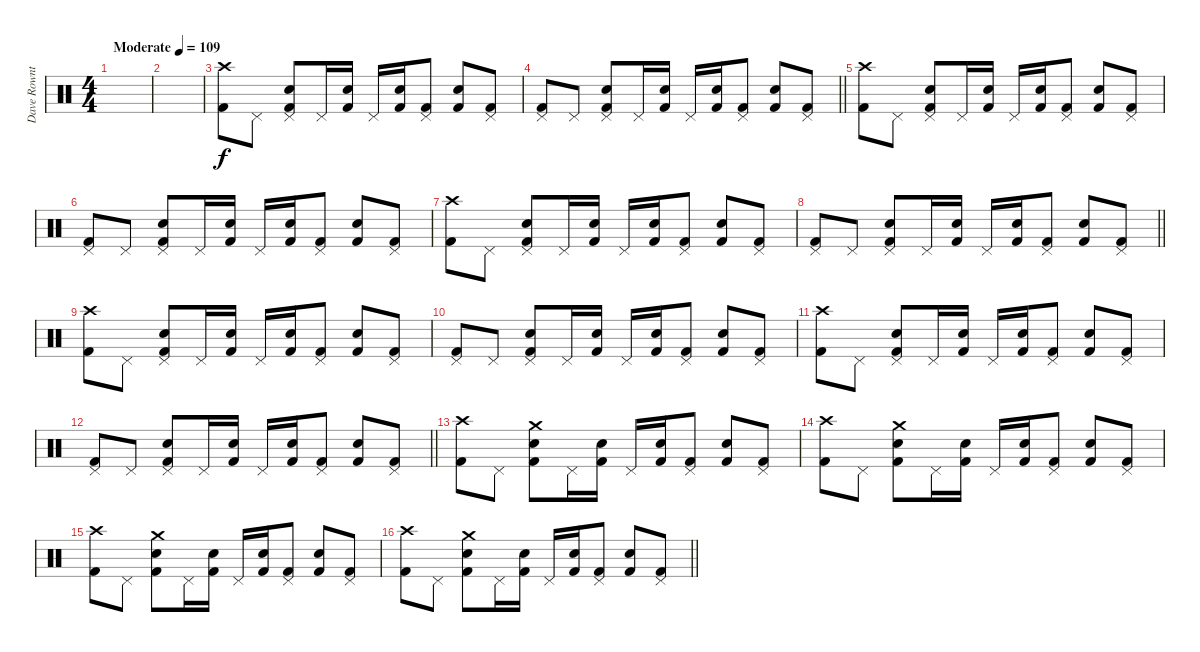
\track ("Dave Rowntree - Drums" "Dave Rownt") {instrument percussion}
\staff {score}
\articulation defaults
\ts (4 4)
\tempo (109 "Moderate")
\clef neutral
\ks c
|
|
("Kick (hit) 2" "Crash high (hit)").8 "Pedal Hi-Hat (hit)".8 ("Kick (hit) 2" "Pedal Hi-Hat (hit)" "Electric Snare (hit)").8 "Pedal Hi-Hat (hit)".16 ("Kick (hit) 2" "Electric Snare (hit)").16 "Pedal Hi-Hat (hit)".16 ("Kick (hit) 2" "Electric Snare (hit)").16 ("Kick (hit) 2" "Pedal Hi-Hat (hit)").8 ("Kick (hit) 2" "Electric Snare (hit)").8 ("Kick (hit) 2" "Pedal Hi-Hat (hit)").8 |
\barLineRight lightlight
("Kick (hit) 2" "Pedal Hi-Hat (hit)").8 "Pedal Hi-Hat (hit)".8 ("Kick (hit) 2" "Pedal Hi-Hat (hit)" "Electric Snare (hit)").8 "Pedal Hi-Hat (hit)".16 ("Kick (hit) 2" "Electric Snare (hit)").16 "Pedal Hi-Hat (hit)".16 ("Kick (hit) 2" "Electric Snare (hit)").16 ("Kick (hit) 2" "Pedal Hi-Hat (hit)").8 ("Kick (hit) 2" "Electric Snare (hit)").8 ("Kick (hit) 2" "Pedal Hi-Hat (hit)").8 |
("Kick (hit) 2" "Crash high (hit)").8 "Pedal Hi-Hat (hit)".8 ("Kick (hit) 2" "Pedal Hi-Hat (hit)" "Electric Snare (hit)").8 "Pedal Hi-Hat (hit)".16 ("Kick (hit) 2" "Electric Snare (hit)").16 "Pedal Hi-Hat (hit)".16 ("Kick (hit) 2" "Electric Snare (hit)").16 ("Kick (hit) 2" "Pedal Hi-Hat (hit)").8 ("Kick (hit) 2" "Electric Snare (hit)").8 ("Kick (hit) 2" "Pedal Hi-Hat (hit)").8 |
("Kick (hit) 2" "Pedal Hi-Hat (hit)").8 "Pedal Hi-Hat (hit)".8 ("Kick (hit) 2" "Pedal Hi-Hat (hit)" "Electric Snare (hit)").8 "Pedal Hi-Hat (hit)".16 ("Kick (hit) 2" "Electric Snare (hit)").16 "Pedal Hi-Hat (hit)".16 ("Kick (hit) 2" "Electric Snare (hit)").16 ("Kick (hit) 2" "Pedal Hi-Hat (hit)").8 ("Kick (hit) 2" "Electric Snare (hit)").8 ("Kick (hit) 2" "Pedal Hi-Hat (hit)").8 |
("Kick (hit) 2" "Crash high (hit)").8 "Pedal Hi-Hat (hit)".8 ("Kick (hit) 2" "Pedal Hi-Hat (hit)" "Electric Snare (hit)").8 "Pedal Hi-Hat (hit)".16 ("Kick (hit) 2" "Electric Snare (hit)").16 "Pedal Hi-Hat (hit)".16 ("Kick (hit) 2" "Electric Snare (hit)").16 ("Kick (hit) 2" "Pedal Hi-Hat (hit)").8 ("Kick (hit) 2" "Electric Snare (hit)").8 ("Kick (hit) 2" "Pedal Hi-Hat (hit)").8 |
\barLineRight lightlight
("Kick (hit) 2" "Pedal Hi-Hat (hit)").8 "Pedal Hi-Hat (hit)".8 ("Kick (hit) 2" "Pedal Hi-Hat (hit)" "Electric Snare (hit)").8 "Pedal Hi-Hat (hit)".16 ("Kick (hit) 2" "Electric Snare (hit)").16 "Pedal Hi-Hat (hit)".16 ("Kick (hit) 2" "Electric Snare (hit)").16 ("Kick (hit) 2" "Pedal Hi-Hat (hit)").8 ("Kick (hit) 2" "Electric Snare (hit)").8 ("Kick (hit) 2" "Pedal Hi-Hat (hit)").8 |
("Kick (hit) 2" "Crash high (hit)").8 "Pedal Hi-Hat (hit)".8 ("Kick (hit) 2" "Pedal Hi-Hat (hit)" "Electric Snare (hit)").8 "Pedal Hi-Hat (hit)".16 ("Kick (hit) 2" "Electric Snare (hit)").16 "Pedal Hi-Hat (hit)".16 ("Kick (hit) 2" "Electric Snare (hit)").16 ("Kick (hit) 2" "Pedal Hi-Hat (hit)").8 ("Kick (hit) 2" "Electric Snare (hit)").8 ("Kick (hit) 2" "Pedal Hi-Hat (hit)").8 |
("Kick (hit) 2" "Pedal Hi-Hat (hit)").8 "Pedal Hi-Hat (hit)".8 ("Kick (hit) 2" "Pedal Hi-Hat (hit)" "Electric Snare (hit)").8 "Pedal Hi-Hat (hit)".16 ("Kick (hit) 2" "Electric Snare (hit)").16 "Pedal Hi-Hat (hit)".16 ("Kick (hit) 2" "Electric Snare (hit)").16 ("Kick (hit) 2" "Pedal Hi-Hat (hit)").8 ("Kick (hit) 2" "Electric Snare (hit)").8 ("Kick (hit) 2" "Pedal Hi-Hat (hit)").8 |
("Kick (hit) 2" "Crash high (hit)").8 "Pedal Hi-Hat (hit)".8 ("Kick (hit) 2" "Pedal Hi-Hat (hit)" "Electric Snare (hit)").8 "Pedal Hi-Hat (hit)".16 ("Kick (hit) 2" "Electric Snare (hit)").16 "Pedal Hi-Hat (hit)".16 ("Kick (hit) 2" "Electric Snare (hit)").16 ("Kick (hit) 2" "Pedal Hi-Hat (hit)").8 ("Kick (hit) 2" "Electric Snare (hit)").8 ("Kick (hit) 2" "Pedal Hi-Hat (hit)").8 |
\barLineRight lightlight
("Kick (hit) 2" "Pedal Hi-Hat (hit)").8 "Pedal Hi-Hat (hit)".8 ("Kick (hit) 2" "Pedal Hi-Hat (hit)" "Electric Snare (hit)").8 "Pedal Hi-Hat (hit)".16 ("Kick (hit) 2" "Electric Snare (hit)").16 "Pedal Hi-Hat (hit)".16 ("Kick (hit) 2" "Electric Snare (hit)").16 ("Kick (hit) 2" "Pedal Hi-Hat (hit)").8 ("Kick (hit) 2" "Electric Snare (hit)").8 ("Kick (hit) 2" "Pedal Hi-Hat (hit)").8 |
("Kick (hit) 2" "Crash high (hit)").8 "Pedal Hi-Hat (hit)".8 ("Kick (hit) 2" "Crash medium (hit)" "Electric Snare (hit)").8 "Pedal Hi-Hat (hit)".16 ("Kick (hit) 2" "Electric Snare (hit)").16 "Pedal Hi-Hat (hit)".16 ("Kick (hit) 2" "Electric Snare (hit)").16 ("Kick (hit) 2" "Pedal Hi-Hat (hit)").8 ("Kick (hit) 2" "Electric Snare (hit)").8 ("Kick (hit) 2" "Pedal Hi-Hat (hit)").8 |
("Kick (hit) 2" "Crash high (hit)").8 "Pedal Hi-Hat (hit)".8 ("Kick (hit) 2" "Crash medium (hit)" "Electric Snare (hit)").8 "Pedal Hi-Hat (hit)".16 ("Kick (hit) 2" "Electric Snare (hit)").16 "Pedal Hi-Hat (hit)".16 ("Kick (hit) 2" "Electric Snare (hit)").16 ("Kick (hit) 2" "Pedal Hi-Hat (hit)").8 ("Kick (hit) 2" "Electric Snare (hit)").8 ("Kick (hit) 2" "Pedal Hi-Hat (hit)").8 |
("Kick (hit) 2" "Crash high (hit)").8 "Pedal Hi-Hat (hit)".8 ("Kick (hit) 2" "Crash medium (hit)" "Electric Snare (hit)").8 "Pedal Hi-Hat (hit)".16 ("Kick (hit) 2" "Electric Snare (hit)").16 "Pedal Hi-Hat (hit)".16 ("Kick (hit) 2" "Electric Snare (hit)").16 ("Kick (hit) 2" "Pedal Hi-Hat (hit)").8 ("Kick (hit) 2" "Electric Snare (hit)").8 ("Kick (hit) 2" "Pedal Hi-Hat (hit)").8 |
\barLineRight lightlight
("Kick (hit) 2" "Crash high (hit)").8 "Pedal Hi-Hat (hit)".8 ("Kick (hit) 2" "Crash medium (hit)" "Electric Snare (hit)").8 "Pedal Hi-Hat (hit)".16 ("Kick (hit) 2" "Electric Snare (hit)").16 "Pedal Hi-Hat (hit)".16 ("Kick (hit) 2" "Electric Snare (hit)").16 ("Kick (hit) 2" "Pedal Hi-Hat (hit)").8 ("Kick (hit) 2" "Electric Snare (hit)").8 ("Kick (hit) 2" "Pedal Hi-Hat (hit)").8
